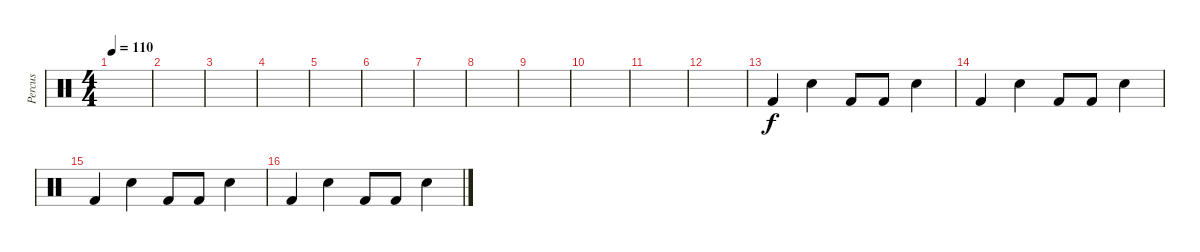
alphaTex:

\track ("Percus" "Percus") {instrument percussion}
\staff {score}
\articulation defaults
\ts (4 4)
\tempo 110
\clef neutral
\ks c
|
|
|
|
|
|
|
|
|
|
|
|
"Kick (hit) 2".4 "Electric Snare (hit)".4 "Kick (hit) 2".8 "Kick (hit) 2".8 "Electric Snare (hit)".4 |
"Kick (hit) 2".4 "Electric Snare (hit)".4 "Kick (hit) 2".8 "Kick (hit) 2".8 "Electric Snare (hit)".4 |
"Kick (hit) 2".4 "Electric Snare (hit)".4 "Kick (hit) 2".8 "Kick (hit) 2".8 "Electric Snare (hit)".4 |
"Kick (hit) 2".4 "Electric Snare (hit)".4 "Kick (hit) 2".8 "Kick (hit) 2".8 "Electric Snare (hit)".4
